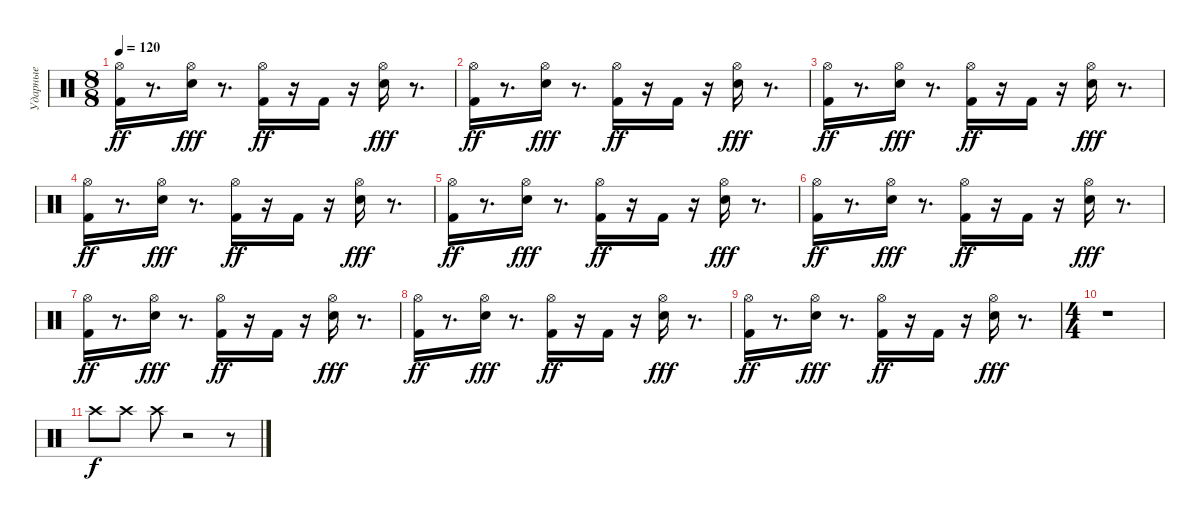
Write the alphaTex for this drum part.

\track ("Ударные" "Ударные") {instrument percussion}
\staff {score}
\articulation defaults
\ts (8 8)
\tempo 120
\clef neutral
\ks c
("Kick (hit) 2" "Hi-Hat (open)").16{dy ff} r.8{d} ("Snare (hit) 2" "Hi-Hat (open)").16{dy fff} r.8{d} ("Kick (hit) 2" "Hi-Hat (open)").16{dy ff} r.16 "Kick (hit) 2".16 r.16 ("Snare (hit) 2" "Hi-Hat (open)").16{dy fff} r.8{d} |
("Kick (hit) 2" "Hi-Hat (open)").16{dy ff} r.8{d} ("Snare (hit) 2" "Hi-Hat (open)").16{dy fff} r.8{d} ("Kick (hit) 2" "Hi-Hat (open)").16{dy ff} r.16 "Kick (hit) 2".16 r.16 ("Snare (hit) 2" "Hi-Hat (open)").16{dy fff} r.8{d} |
("Kick (hit) 2" "Hi-Hat (open)").16{dy ff} r.8{d} ("Snare (hit) 2" "Hi-Hat (open)").16{dy fff} r.8{d} ("Kick (hit) 2" "Hi-Hat (open)").16{dy ff} r.16 "Kick (hit) 2".16 r.16 ("Snare (hit) 2" "Hi-Hat (open)").16{dy fff} r.8{d} |
("Kick (hit) 2" "Hi-Hat (open)").16{dy ff} r.8{d} ("Snare (hit) 2" "Hi-Hat (open)").16{dy fff} r.8{d} ("Kick (hit) 2" "Hi-Hat (open)").16{dy ff} r.16 "Kick (hit) 2".16 r.16 ("Snare (hit) 2" "Hi-Hat (open)").16{dy fff} r.8{d} |
("Kick (hit) 2" "Hi-Hat (open)").16{dy ff} r.8{d} ("Snare (hit) 2" "Hi-Hat (open)").16{dy fff} r.8{d} ("Kick (hit) 2" "Hi-Hat (open)").16{dy ff} r.16 "Kick (hit) 2".16 r.16 ("Snare (hit) 2" "Hi-Hat (open)").16{dy fff} r.8{d} |
("Kick (hit) 2" "Hi-Hat (open)").16{dy ff} r.8{d} ("Snare (hit) 2" "Hi-Hat (open)").16{dy fff} r.8{d} ("Kick (hit) 2" "Hi-Hat (open)").16{dy ff} r.16 "Kick (hit) 2".16 r.16 ("Snare (hit) 2" "Hi-Hat (open)").16{dy fff} r.8{d} |
("Kick (hit) 2" "Hi-Hat (open)").16{dy ff} r.8{d} ("Snare (hit) 2" "Hi-Hat (open)").16{dy fff} r.8{d} ("Kick (hit) 2" "Hi-Hat (open)").16{dy ff} r.16 "Kick (hit) 2".16 r.16 ("Snare (hit) 2" "Hi-Hat (open)").16{dy fff} r.8{d} |
("Kick (hit) 2" "Hi-Hat (open)").16{dy ff} r.8{d} ("Snare (hit) 2" "Hi-Hat (open)").16{dy fff} r.8{d} ("Kick (hit) 2" "Hi-Hat (open)").16{dy ff} r.16 "Kick (hit) 2".16 r.16 ("Snare (hit) 2" "Hi-Hat (open)").16{dy fff} r.8{d} |
("Kick (hit) 2" "Hi-Hat (open)").16{dy ff} r.8{d} ("Snare (hit) 2" "Hi-Hat (open)").16{dy fff} r.8{d} ("Kick (hit) 2" "Hi-Hat (open)").16{dy ff} r.16 "Kick (hit) 2".16 r.16 ("Snare (hit) 2" "Hi-Hat (open)").16{dy fff} r.8{d} |
\ts (4 4)
r.1 |
"Crash high (hit)".8{dy f} "Crash high (hit)".8 "Crash high (hit)".8 r.2 r.8
